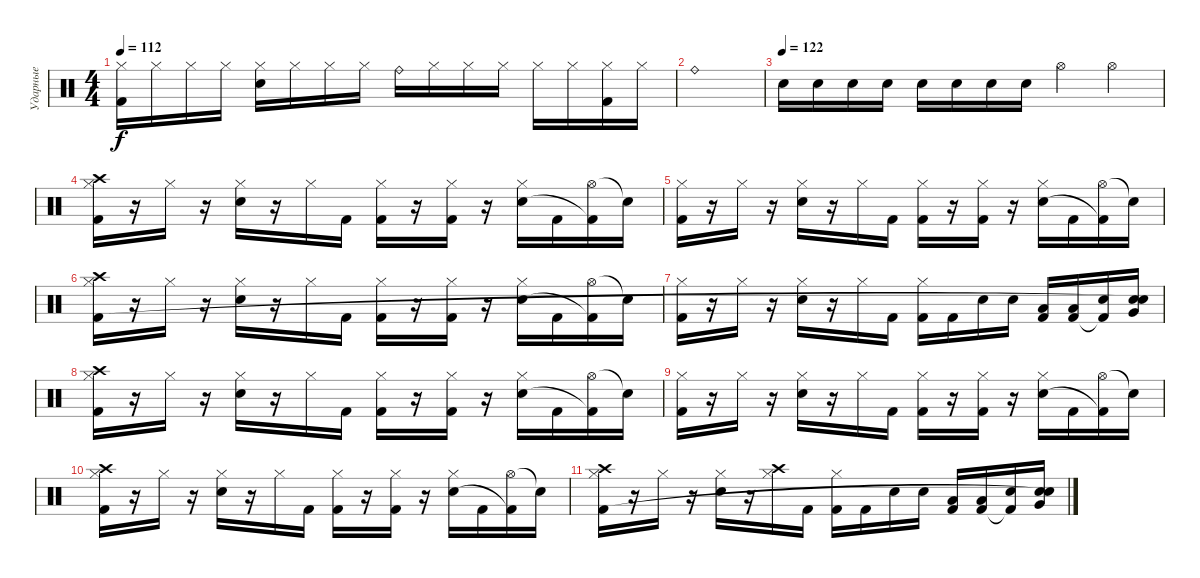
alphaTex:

\track ("Ударные" "Ударные") {instrument percussion}
\staff {score}
\articulation defaults
\ts (4 4)
\tempo 112
\clef neutral
\ks c
("Hi-Hat (closed)" "Kick (hit) 2").16{dy f} "Hi-Hat (closed)".16 "Hi-Hat (closed)".16 "Hi-Hat (closed)".16 ("Hi-Hat (closed)" "Snare (hit) 2").16 "Hi-Hat (closed)".16 "Hi-Hat (closed)".16 "Hi-Hat (closed)".16 "Ride (bell)".16 "Hi-Hat (closed)".16 "Hi-Hat (closed)".16 "Hi-Hat (closed)".16 "Hi-Hat (closed)".16 "Hi-Hat (closed)".16 ("Hi-Hat (closed)" "Kick (hit) 2").16 "Hi-Hat (closed)".16 |
"Ride (bell)".1 |
\tempo (122)
"Snare (hit) 2".16 "Snare (hit) 2".16 "Snare (hit) 2".16 "Snare (hit) 2".16 "Snare (hit) 2".16 "Snare (hit) 2".16 "Snare (hit) 2".16 "Snare (hit) 2".16 "Hi-Hat (open)".4 "Hi-Hat (open)".4 |
("Hi-Hat (closed)" "Crash high (hit)" "Kick (hit) 2").16 r.16 "Hi-Hat (closed)".16 r.16 ("Hi-Hat (closed)" "Snare (hit) 2").16 r.16 "Hi-Hat (closed)".16 "Kick (hit) 2".16 ("Hi-Hat (closed)" "Kick (hit) 2").16 r.16 ("Hi-Hat (closed)" "Kick (hit) 2").16 r.16 ("Hi-Hat (closed)" "Snare (hit) 2").16 "Kick (hit) 2".16 ("Hi-Hat (open)" "Kick (hit) 2"{t}).16 "Snare (hit)"{t}.16 |
("Hi-Hat (closed)" "Kick (hit) 2").16 r.16 "Hi-Hat (closed)".16 r.16 ("Hi-Hat (closed)" "Snare (hit) 2").16 r.16 "Hi-Hat (closed)".16 "Kick (hit) 2".16 ("Hi-Hat (closed)" "Kick (hit) 2").16 r.16 ("Hi-Hat (closed)" "Kick (hit) 2").16 r.16 ("Hi-Hat (closed)" "Snare (hit) 2").16 "Kick (hit) 2".16 ("Hi-Hat (open)" "Kick (hit) 2"{t}).16 "Snare (hit)"{t}.16 |
("Hi-Hat (closed)" "Crash high (hit)" "Kick (hit) 2").16 r.16 "Hi-Hat (closed)".16 r.16 ("Hi-Hat (closed)" "Snare (hit) 2").16 r.16 "Hi-Hat (closed)".16 "Kick (hit) 2".16 ("Hi-Hat (closed)" "Kick (hit) 2").16 r.16 ("Hi-Hat (closed)" "Kick (hit) 2").16 r.16 ("Hi-Hat (closed)" "Snare (hit) 2").16 "Kick (hit) 2".16 ("Hi-Hat (open)" "Kick (hit) 2"{t}).16 "Snare (hit)"{t}.16 |
("Hi-Hat (closed)" "Kick (hit) 2").16 r.16 "Hi-Hat (closed)".16 r.16 ("Hi-Hat (closed)" "Snare (hit) 2").16 r.16 "Hi-Hat (closed)".16 "Kick (hit) 2".16 ("Hi-Hat (closed)" "Kick (hit) 2").16 "Kick (hit) 2".16 "Snare (hit) 2".16 "Snare (hit) 2".16 ("Low Floor Tom (hit)" "Kick (hit) 2").16 ("Low Floor Tom (hit)" "Kick (hit) 2").16 ("Snare (hit) 2" "Kick (hit) 2"{t}).16 ("Very Low Tom (hit)" "Snare (hit) 2" "Snare (hit)"{t}).16 |
("Hi-Hat (closed)" "Crash high (hit)" "Kick (hit) 2").16 r.16 "Hi-Hat (closed)".16 r.16 ("Hi-Hat (closed)" "Snare (hit) 2").16 r.16 "Hi-Hat (closed)".16 "Kick (hit) 2".16 ("Hi-Hat (closed)" "Kick (hit) 2").16 r.16 ("Hi-Hat (closed)" "Kick (hit) 2").16 r.16 ("Hi-Hat (closed)" "Snare (hit) 2").16 "Kick (hit) 2".16 ("Hi-Hat (open)" "Kick (hit) 2"{t}).16 "Snare (hit)"{t}.16 |
("Hi-Hat (closed)" "Kick (hit) 2").16 r.16 "Hi-Hat (closed)".16 r.16 ("Hi-Hat (closed)" "Snare (hit) 2").16 r.16 "Hi-Hat (closed)".16 "Kick (hit) 2".16 ("Hi-Hat (closed)" "Kick (hit) 2").16 r.16 ("Hi-Hat (closed)" "Kick (hit) 2").16 r.16 ("Hi-Hat (closed)" "Snare (hit) 2").16 "Kick (hit) 2".16 ("Hi-Hat (open)" "Kick (hit) 2"{t}).16 "Snare (hit)"{t}.16 |
("Hi-Hat (closed)" "Crash high (hit)" "Kick (hit) 2").16 r.16 "Hi-Hat (closed)".16 r.16 ("Hi-Hat (closed)" "Snare (hit) 2").16 r.16 "Hi-Hat (closed)".16 "Kick (hit) 2".16 ("Hi-Hat (closed)" "Kick (hit) 2").16 r.16 ("Hi-Hat (closed)" "Kick (hit) 2").16 r.16 ("Hi-Hat (closed)" "Snare (hit) 2").16 "Kick (hit) 2".16 ("Hi-Hat (open)" "Kick (hit) 2"{t}).16 "Snare (hit)"{t}.16 |
("Hi-Hat (closed)" "Crash high (hit)" "Kick (hit) 2").16 r.16 "Hi-Hat (closed)".16 r.16 ("Hi-Hat (closed)" "Snare (hit) 2").16 r.16 ("Hi-Hat (closed)" "Crash high (hit)").16 "Kick (hit) 2".16 ("Hi-Hat (closed)" "Kick (hit) 2").16 "Kick (hit) 2".16 "Snare (hit) 2".16 "Snare (hit) 2".16 ("Low Floor Tom (hit)" "Kick (hit) 2").16 ("Low Floor Tom (hit)" "Kick (hit) 2").16 ("Snare (hit) 2" "Kick (hit) 2"{t}).16 ("Very Low Tom (hit)" "Snare (hit) 2" "Snare (hit)"{t}).16
